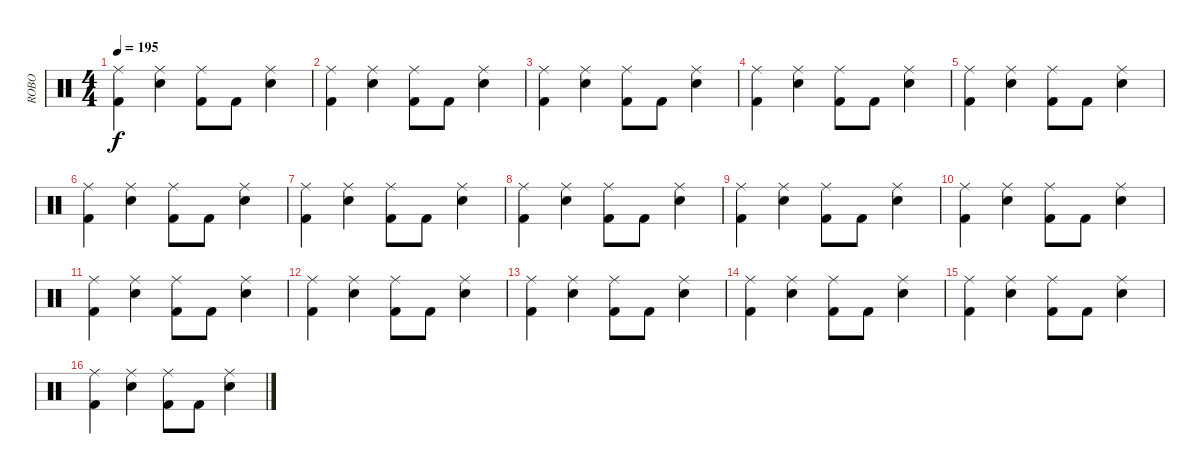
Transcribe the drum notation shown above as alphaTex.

\track ("ROBO" "ROBO") {instrument percussion}
\staff {score}
\articulation defaults
\ts (4 4)
\tempo 195
\clef neutral
\ks c
("Ride (middle)" "Kick (hit) 2").4{dy f} ("Ride (middle)" "Electric Snare (hit)").4 ("Ride (middle)" "Kick (hit) 2").8 "Kick (hit) 2".8 ("Ride (middle)" "Electric Snare (hit)").4 |
("Ride (middle)" "Kick (hit) 2").4 ("Ride (middle)" "Electric Snare (hit)").4 ("Ride (middle)" "Kick (hit) 2").8 "Kick (hit) 2".8 ("Ride (middle)" "Electric Snare (hit)").4 |
("Ride (middle)" "Kick (hit) 2").4 ("Ride (middle)" "Electric Snare (hit)").4 ("Ride (middle)" "Kick (hit) 2").8 "Kick (hit) 2".8 ("Ride (middle)" "Electric Snare (hit)").4 |
("Ride (middle)" "Kick (hit) 2").4 ("Ride (middle)" "Electric Snare (hit)").4 ("Ride (middle)" "Kick (hit) 2").8 "Kick (hit) 2".8 ("Ride (middle)" "Electric Snare (hit)").4 |
("Ride (middle)" "Kick (hit) 2").4 ("Ride (middle)" "Electric Snare (hit)").4 ("Ride (middle)" "Kick (hit) 2").8 "Kick (hit) 2".8 ("Ride (middle)" "Electric Snare (hit)").4 |
("Ride (middle)" "Kick (hit) 2").4 ("Ride (middle)" "Electric Snare (hit)").4 ("Ride (middle)" "Kick (hit) 2").8 "Kick (hit) 2".8 ("Ride (middle)" "Electric Snare (hit)").4 |
("Ride (middle)" "Kick (hit) 2").4 ("Ride (middle)" "Electric Snare (hit)").4 ("Ride (middle)" "Kick (hit) 2").8 "Kick (hit) 2".8 ("Ride (middle)" "Electric Snare (hit)").4 |
("Ride (middle)" "Kick (hit) 2").4 ("Ride (middle)" "Electric Snare (hit)").4 ("Ride (middle)" "Kick (hit) 2").8 "Kick (hit) 2".8 ("Ride (middle)" "Electric Snare (hit)").4 |
("Ride (middle)" "Kick (hit) 2").4 ("Ride (middle)" "Electric Snare (hit)").4 ("Ride (middle)" "Kick (hit) 2").8 "Kick (hit) 2".8 ("Ride (middle)" "Electric Snare (hit)").4 |
("Ride (middle)" "Kick (hit) 2").4 ("Ride (middle)" "Electric Snare (hit)").4 ("Ride (middle)" "Kick (hit) 2").8 "Kick (hit) 2".8 ("Ride (middle)" "Electric Snare (hit)").4 |
("Ride (middle)" "Kick (hit) 2").4 ("Ride (middle)" "Electric Snare (hit)").4 ("Ride (middle)" "Kick (hit) 2").8 "Kick (hit) 2".8 ("Ride (middle)" "Electric Snare (hit)").4 |
("Ride (middle)" "Kick (hit) 2").4 ("Ride (middle)" "Electric Snare (hit)").4 ("Ride (middle)" "Kick (hit) 2").8 "Kick (hit) 2".8 ("Ride (middle)" "Electric Snare (hit)").4 |
("Ride (middle)" "Kick (hit) 2").4 ("Ride (middle)" "Electric Snare (hit)").4 ("Ride (middle)" "Kick (hit) 2").8 "Kick (hit) 2".8 ("Ride (middle)" "Electric Snare (hit)").4 |
("Ride (middle)" "Kick (hit) 2").4 ("Ride (middle)" "Electric Snare (hit)").4 ("Ride (middle)" "Kick (hit) 2").8 "Kick (hit) 2".8 ("Ride (middle)" "Electric Snare (hit)").4 |
("Ride (middle)" "Kick (hit) 2").4 ("Ride (middle)" "Electric Snare (hit)").4 ("Ride (middle)" "Kick (hit) 2").8 "Kick (hit) 2".8 ("Ride (middle)" "Electric Snare (hit)").4 |
("Ride (middle)" "Kick (hit) 2").4 ("Ride (middle)" "Electric Snare (hit)").4 ("Ride (middle)" "Kick (hit) 2").8 "Kick (hit) 2".8 ("Ride (middle)" "Electric Snare (hit)").4
